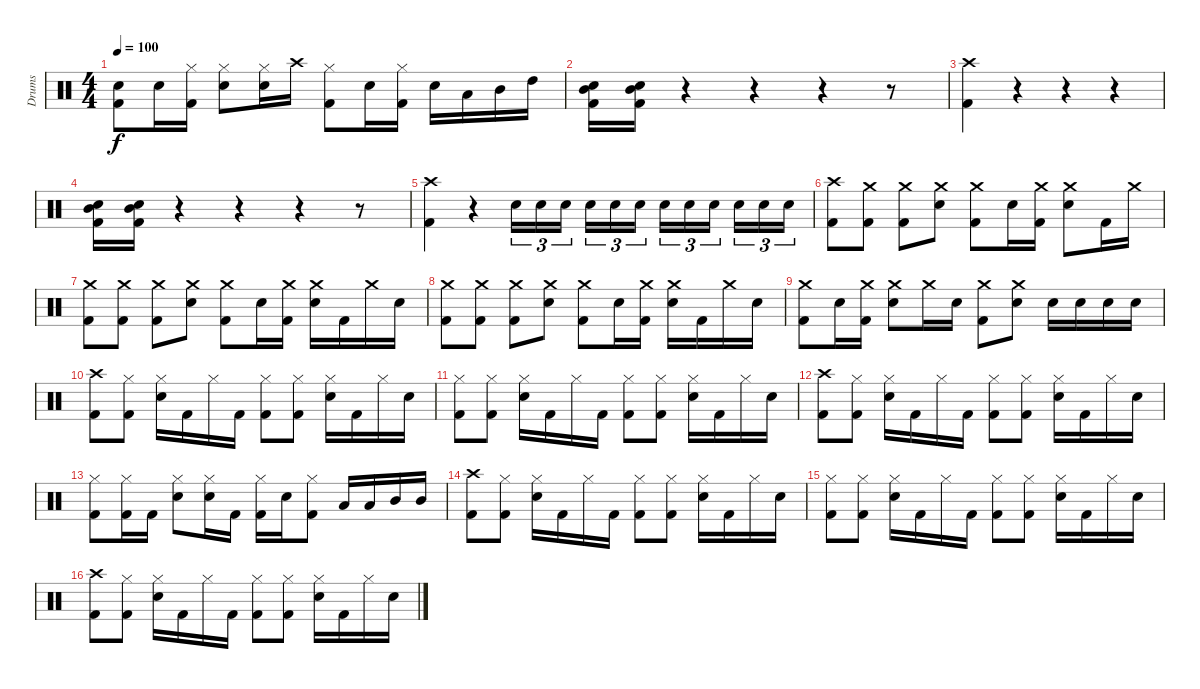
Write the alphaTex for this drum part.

\track ("Drums" "Drums") {instrument percussion}
\staff {score}
\articulation defaults
\ts (4 4)
\tempo 100
\clef neutral
\ks c
("Snare (hit) 2" "Kick (hit) 2").8{dy f} "Snare (hit) 2".16 ("Hi-Hat (closed)" "Kick (hit) 2").16 ("Hi-Hat (closed)" "Snare (hit) 2").8 ("Hi-Hat (closed)" "Snare (hit) 2").16 "Crash high (hit)".16 ("Hi-Hat (closed)" "Kick (hit) 2").8 "Snare (hit) 2".16 ("Hi-Hat (closed)" "Kick (hit) 2").16 "Snare (hit) 2".16 "Low Tom (hit)".16 "Mid Tom (hit)".16 "High Tom (hit)".16 |
("Snare (hit) 2" "Mid Tom (hit)" "Kick (hit) 2").16 ("Snare (hit) 2" "Mid Tom (hit)" "Kick (hit) 2").16 r.4 r.4 r.4 r.8 |
("Crash high (hit)" "Kick (hit) 2").4 r.4 r.4 r.4 |
("Snare (hit) 2" "Mid Tom (hit)" "Kick (hit) 2").16 ("Snare (hit) 2" "Mid Tom (hit)" "Kick (hit) 2").16 r.4 r.4 r.4 r.8 |
("Crash high (hit)" "Kick (hit) 2").4 r.4 "Snare (hit) 2".16{tu (3 2)} "Snare (hit) 2".16{tu (3 2)} "Snare (hit) 2".16{tu (3 2)} "Snare (hit) 2".16{tu (3 2)} "Snare (hit) 2".16{tu (3 2)} "Snare (hit) 2".16{tu (3 2)} "Snare (hit) 2".16{tu (3 2)} "Snare (hit) 2".16{tu (3 2)} "Snare (hit) 2".16{tu (3 2)} "Snare (hit) 2".16{tu (3 2)} "Snare (hit) 2".16{tu (3 2)} "Snare (hit) 2".16{tu (3 2)} |
("Crash high (hit)" "Kick (hit) 2").8 ("Crash medium (hit)" "Kick (hit) 2").8 ("Crash medium (hit)" "Kick (hit) 2").8 ("Crash medium (hit)" "Snare (hit) 2").8 ("Crash medium (hit)" "Kick (hit) 2").8 "Snare (hit) 2".16 ("Crash medium (hit)" "Kick (hit) 2").16 ("Crash medium (hit)" "Snare (hit) 2").8 "Kick (hit) 2".16 "Crash medium (hit)".16 |
("Crash medium (hit)" "Kick (hit) 2").8 ("Crash medium (hit)" "Kick (hit) 2").8 ("Crash medium (hit)" "Kick (hit) 2").8 ("Crash medium (hit)" "Snare (hit) 2").8 ("Crash medium (hit)" "Kick (hit) 2").8 "Snare (hit) 2".16 ("Crash medium (hit)" "Kick (hit) 2").16 ("Crash medium (hit)" "Snare (hit) 2").16 "Kick (hit) 2".16 "Crash medium (hit)".16 "Snare (hit) 2".16 |
("Crash medium (hit)" "Kick (hit) 2").8 ("Crash medium (hit)" "Kick (hit) 2").8 ("Crash medium (hit)" "Kick (hit) 2").8 ("Crash medium (hit)" "Snare (hit) 2").8 ("Crash medium (hit)" "Kick (hit) 2").8 "Snare (hit) 2".16 ("Crash medium (hit)" "Kick (hit) 2").16 ("Crash medium (hit)" "Snare (hit) 2").16 "Kick (hit) 2".16 "Crash medium (hit)".16 "Snare (hit) 2".16 |
("Crash medium (hit)" "Kick (hit) 2").8 "Snare (hit) 2".16 ("Crash medium (hit)" "Kick (hit) 2").16 ("Crash medium (hit)" "Snare (hit) 2").8 "Crash medium (hit)".16 "Snare (hit) 2".16 ("Crash medium (hit)" "Kick (hit) 2").8 ("Crash medium (hit)" "Snare (hit) 2").8 "Snare (hit) 2".16 "Snare (hit) 2".16 "Snare (hit) 2".16 "Snare (hit) 2".16 |
("Crash high (hit)" "Kick (hit) 2").8 ("Hi-Hat (closed)" "Kick (hit) 2").8 ("Hi-Hat (closed)" "Snare (hit) 2").16 "Kick (hit) 2".16 "Hi-Hat (closed)".16 "Kick (hit) 2".16 ("Hi-Hat (closed)" "Kick (hit) 2").8 ("Hi-Hat (closed)" "Kick (hit) 2").8 ("Hi-Hat (closed)" "Snare (hit) 2").16 "Kick (hit) 2".16 "Hi-Hat (closed)".16 "Snare (hit) 2".16 |
("Hi-Hat (closed)" "Kick (hit) 2").8 ("Hi-Hat (closed)" "Kick (hit) 2").8 ("Hi-Hat (closed)" "Snare (hit) 2").16 "Kick (hit) 2".16 "Hi-Hat (closed)".16 "Kick (hit) 2".16 ("Hi-Hat (closed)" "Kick (hit) 2").8 ("Hi-Hat (closed)" "Kick (hit) 2").8 ("Hi-Hat (closed)" "Snare (hit) 2").16 "Kick (hit) 2".16 "Hi-Hat (closed)".16 "Snare (hit) 2".16 |
("Crash high (hit)" "Kick (hit) 2").8 ("Hi-Hat (closed)" "Kick (hit) 2").8 ("Hi-Hat (closed)" "Snare (hit) 2").16 "Kick (hit) 2".16 "Hi-Hat (closed)".16 "Kick (hit) 2".16 ("Hi-Hat (closed)" "Kick (hit) 2").8 ("Hi-Hat (closed)" "Kick (hit) 2").8 ("Hi-Hat (closed)" "Snare (hit) 2").16 "Kick (hit) 2".16 "Hi-Hat (closed)".16 "Snare (hit) 2".16 |
("Hi-Hat (closed)" "Kick (hit) 2").8 ("Hi-Hat (closed)" "Kick (hit) 2").16 "Kick (hit) 2".16 ("Hi-Hat (closed)" "Snare (hit) 2").8 ("Hi-Hat (closed)" "Snare (hit) 2").16 "Kick (hit) 2".16 ("Hi-Hat (closed)" "Kick (hit) 2").16 "Snare (hit) 2".16 ("Hi-Hat (closed)" "Kick (hit) 2").8 "Low Tom (hit)".16 "Low Tom (hit)".16 "Mid Tom (hit)".16 "Mid Tom (hit)".16 |
("Crash high (hit)" "Kick (hit) 2").8 ("Hi-Hat (closed)" "Kick (hit) 2").8 ("Hi-Hat (closed)" "Snare (hit) 2").16 "Kick (hit) 2".16 "Hi-Hat (closed)".16 "Kick (hit) 2".16 ("Hi-Hat (closed)" "Kick (hit) 2").8 ("Hi-Hat (closed)" "Kick (hit) 2").8 ("Hi-Hat (closed)" "Snare (hit) 2").16 "Kick (hit) 2".16 "Hi-Hat (closed)".16 "Snare (hit) 2".16 |
("Hi-Hat (closed)" "Kick (hit) 2").8 ("Hi-Hat (closed)" "Kick (hit) 2").8 ("Hi-Hat (closed)" "Snare (hit) 2").16 "Kick (hit) 2".16 "Hi-Hat (closed)".16 "Kick (hit) 2".16 ("Hi-Hat (closed)" "Kick (hit) 2").8 ("Hi-Hat (closed)" "Kick (hit) 2").8 ("Hi-Hat (closed)" "Snare (hit) 2").16 "Kick (hit) 2".16 "Hi-Hat (closed)".16 "Snare (hit) 2".16 |
("Crash high (hit)" "Kick (hit) 2").8 ("Hi-Hat (closed)" "Kick (hit) 2").8 ("Hi-Hat (closed)" "Snare (hit) 2").16 "Kick (hit) 2".16 "Hi-Hat (closed)".16 "Kick (hit) 2".16 ("Hi-Hat (closed)" "Kick (hit) 2").8 ("Hi-Hat (closed)" "Kick (hit) 2").8 ("Hi-Hat (closed)" "Snare (hit) 2").16 "Kick (hit) 2".16 "Hi-Hat (closed)".16 "Snare (hit) 2".16
